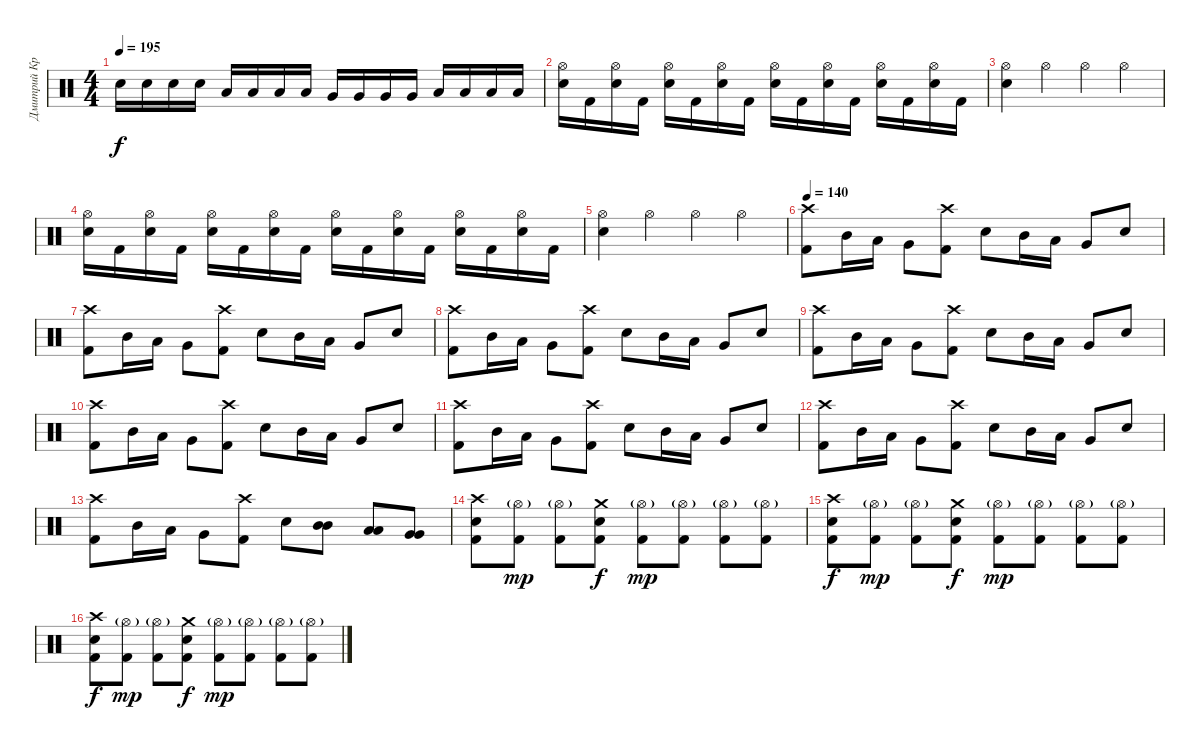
\track ("Дмитрий Кривенков" "Дмитрий Кр") {instrument percussion}
\staff {score}
\articulation defaults
\ts (4 4)
\tempo 195
\clef neutral
\ks c "Electric Snare (hit)".16{dy f} "Electric Snare (hit)".16 "Electric Snare (hit)".16 "Electric Snare (hit)".16 "Low Tom (hit)".16 "Low Tom (hit)".16 "Low Tom (hit)".16 "Low Tom (hit)".16 "Very Low Tom (hit)".16 "Very Low Tom (hit)".16 "Very Low Tom (hit)".16 "Very Low Tom (hit)".16 "Low Floor Tom (hit)".16 "Low Floor Tom (hit)".16 "Low Floor Tom (hit)".16 "Low Floor Tom (hit)".16
|
("Hi-Hat (open)" "Electric Snare (hit)").16 "Kick (hit) 2".16 ("Hi-Hat (open)" "Electric Snare (hit)").16 "Kick (hit) 2".16 ("Hi-Hat (open)" "Electric Snare (hit)").16 "Kick (hit) 2".16 ("Hi-Hat (open)" "Electric Snare (hit)").16 "Kick (hit) 2".16 ("Hi-Hat (open)" "Electric Snare (hit)").16 "Kick (hit) 2".16 ("Hi-Hat (open)" "Electric Snare (hit)").16 "Kick (hit) 2".16 ("Hi-Hat (open)" "Electric Snare (hit)").16 "Kick (hit) 2".16 ("Hi-Hat (open)" "Electric Snare (hit)").16 "Kick (hit) 2".16 |
("Hi-Hat (open)" "Electric Snare (hit)").4 "Hi-Hat (open)".4 "Hi-Hat (open)".4 "Hi-Hat (open)".4 |
("Hi-Hat (open)" "Electric Snare (hit)").16 "Kick (hit) 2".16 ("Hi-Hat (open)" "Electric Snare (hit)").16 "Kick (hit) 2".16 ("Hi-Hat (open)" "Electric Snare (hit)").16 "Kick (hit) 2".16 ("Hi-Hat (open)" "Electric Snare (hit)").16 "Kick (hit) 2".16 ("Hi-Hat (open)" "Electric Snare (hit)").16 "Kick (hit) 2".16 ("Hi-Hat (open)" "Electric Snare (hit)").16 "Kick (hit) 2".16 ("Hi-Hat (open)" "Electric Snare (hit)").16 "Kick (hit) 2".16 ("Hi-Hat (open)" "Electric Snare (hit)").16 "Kick (hit) 2".16 |
("Hi-Hat (open)" "Electric Snare (hit)").4 "Hi-Hat (open)".4 "Hi-Hat (open)".4 "Hi-Hat (open)".4 |
\tempo 140
("Crash high (hit)" "Kick (hit) 2").8 "Mid Tom (hit)".16 "Low Tom (hit)".16 "Very Low Tom (hit)".8 ("Crash high (hit)" "Kick (hit) 2").8 "Electric Snare (hit)".8 "Mid Tom (hit)".16 "Low Tom (hit)".16 "Very Low Tom (hit)".8 "Electric Snare (hit)".8 |
("Crash high (hit)" "Kick (hit) 2").8 "Mid Tom (hit)".16 "Low Tom (hit)".16 "Very Low Tom (hit)".8 ("Crash high (hit)" "Kick (hit) 2").8 "Electric Snare (hit)".8 "Mid Tom (hit)".16 "Low Tom (hit)".16 "Very Low Tom (hit)".8 "Electric Snare (hit)".8 |
("Crash high (hit)" "Kick (hit) 2").8 "Mid Tom (hit)".16 "Low Tom (hit)".16 "Very Low Tom (hit)".8 ("Crash high (hit)" "Kick (hit) 2").8 "Electric Snare (hit)".8 "Mid Tom (hit)".16 "Low Tom (hit)".16 "Very Low Tom (hit)".8 "Electric Snare (hit)".8 |
("Crash high (hit)" "Kick (hit) 2").8 "Mid Tom (hit)".16 "Low Tom (hit)".16 "Very Low Tom (hit)".8 ("Crash high (hit)" "Kick (hit) 2").8 "Electric Snare (hit)".8 "Mid Tom (hit)".16 "Low Tom (hit)".16 "Very Low Tom (hit)".8 "Electric Snare (hit)".8 |
("Crash high (hit)" "Kick (hit) 2").8 "Mid Tom (hit)".16 "Low Tom (hit)".16 "Very Low Tom (hit)".8 ("Crash high (hit)" "Kick (hit) 2").8 "Electric Snare (hit)".8 "Mid Tom (hit)".16 "Low Tom (hit)".16 "Very Low Tom (hit)".8 "Electric Snare (hit)".8 |
("Crash high (hit)" "Kick (hit) 2").8 "Mid Tom (hit)".16 "Low Tom (hit)".16 "Very Low Tom (hit)".8 ("Crash high (hit)" "Kick (hit) 2").8 "Electric Snare (hit)".8 "Mid Tom (hit)".16 "Low Tom (hit)".16 "Very Low Tom (hit)".8 "Electric Snare (hit)".8 |
("Crash high (hit)" "Kick (hit) 2").8 "Mid Tom (hit)".16 "Low Tom (hit)".16 "Very Low Tom (hit)".8 ("Crash high (hit)" "Kick (hit) 2").8 "Electric Snare (hit)".8 "Mid Tom (hit)".16 "Low Tom (hit)".16 "Very Low Tom (hit)".8 "Electric Snare (hit)".8 |
("Crash high (hit)" "Kick (hit) 2").8 "Mid Tom (hit)".16 "Low Tom (hit)".16 "Very Low Tom (hit)".8 ("Crash high (hit)" "Kick (hit) 2").8 "Electric Snare (hit)".8 ("Mid Tom (hit)" "Mid Tom (hit)").8 ("Low Tom (hit)" "Low Tom (hit)").8 ("Very Low Tom (hit)" "Very Low Tom (hit)").8 |
("Crash high (hit)" "Electric Snare (hit)" "Kick (hit) 2").8 ("Hi-Hat (open)"{g} "Kick (hit) 2").8{dy mp} ("Hi-Hat (open)"{g} "Kick (hit) 2").8 ("Crash medium (hit)" "Electric Snare (hit)" "Kick (hit) 2").8{dy f} ("Hi-Hat (open)"{g} "Kick (hit) 2").8{dy mp} ("Hi-Hat (open)"{g} "Kick (hit) 2").8 ("Hi-Hat (open)"{g} "Kick (hit) 2").8 ("Hi-Hat (open)"{g} "Kick (hit) 2").8 |
("Crash high (hit)" "Electric Snare (hit)" "Kick (hit) 2").8{dy f} ("Hi-Hat (open)"{g} "Kick (hit) 2").8{dy mp} ("Hi-Hat (open)"{g} "Kick (hit) 2").8 ("Crash medium (hit)" "Electric Snare (hit)" "Kick (hit) 2").8{dy f} ("Hi-Hat (open)"{g} "Kick (hit) 2").8{dy mp} ("Hi-Hat (open)"{g} "Kick (hit) 2").8 ("Hi-Hat (open)"{g} "Kick (hit) 2").8 ("Hi-Hat (open)"{g} "Kick (hit) 2").8 |
("Crash high (hit)" "Electric Snare (hit)" "Kick (hit) 2").8{dy f} ("Hi-Hat (open)"{g} "Kick (hit) 2").8{dy mp} ("Hi-Hat (open)"{g} "Kick (hit) 2").8 ("Crash medium (hit)" "Electric Snare (hit)" "Kick (hit) 2").8{dy f} ("Hi-Hat (open)"{g} "Kick (hit) 2").8{dy mp} ("Hi-Hat (open)"{g} "Kick (hit) 2").8 ("Hi-Hat (open)"{g} "Kick (hit) 2").8 ("Hi-Hat (open)"{g} "Kick (hit) 2").8
